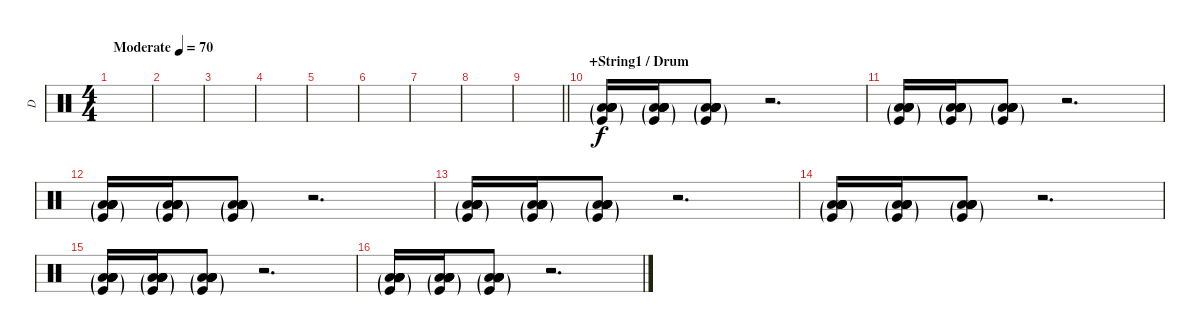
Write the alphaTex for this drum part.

\track ("D" "D") {instrument percussion}
\staff {score}
\articulation defaults
\ts (4 4)
\tempo (70 "Moderate")
\clef neutral
\ks c
|
|
|
|
|
|
|
|
\barLineRight lightlight
|
\section ("" "+String1 / Drum")
("Low Floor Tom (hit)"{g} "Low Floor Tom (hit)"{g} "Low Floor Tom (hit)"{g} "Low Floor Tom (hit)"{g} "Low Floor Tom (hit)"{g} "Kick (hit)"{g}).16 ("Low Floor Tom (hit)"{g} "Low Floor Tom (hit)"{g} "Low Floor Tom (hit)"{g} "Low Floor Tom (hit)"{g} "Low Floor Tom (hit)"{g} "Kick (hit)"{g}).16 ("Low Floor Tom (hit)"{g} "Low Floor Tom (hit)"{g} "Low Floor Tom (hit)"{g} "Low Floor Tom (hit)"{g} "Low Floor Tom (hit)"{g} "Kick (hit)"{g}).8 r.2{d} |
("Low Floor Tom (hit)"{g} "Low Floor Tom (hit)"{g} "Low Floor Tom (hit)"{g} "Low Floor Tom (hit)"{g} "Low Floor Tom (hit)"{g} "Kick (hit)"{g}).16 ("Low Floor Tom (hit)"{g} "Low Floor Tom (hit)"{g} "Low Floor Tom (hit)"{g} "Low Floor Tom (hit)"{g} "Low Floor Tom (hit)"{g} "Kick (hit)"{g}).16 ("Low Floor Tom (hit)"{g} "Low Floor Tom (hit)"{g} "Low Floor Tom (hit)"{g} "Low Floor Tom (hit)"{g} "Low Floor Tom (hit)"{g} "Kick (hit)"{g}).8 r.2{d} |
("Low Floor Tom (hit)"{g} "Low Floor Tom (hit)"{g} "Low Floor Tom (hit)"{g} "Low Floor Tom (hit)"{g} "Low Floor Tom (hit)"{g} "Kick (hit)"{g}).16 ("Low Floor Tom (hit)"{g} "Low Floor Tom (hit)"{g} "Low Floor Tom (hit)"{g} "Low Floor Tom (hit)"{g} "Low Floor Tom (hit)"{g} "Kick (hit)"{g}).16 ("Low Floor Tom (hit)"{g} "Low Floor Tom (hit)"{g} "Low Floor Tom (hit)"{g} "Low Floor Tom (hit)"{g} "Low Floor Tom (hit)"{g} "Kick (hit)"{g}).8 r.2{d} |
("Low Floor Tom (hit)"{g} "Low Floor Tom (hit)"{g} "Low Floor Tom (hit)"{g} "Low Floor Tom (hit)"{g} "Low Floor Tom (hit)"{g} "Kick (hit)"{g}).16 ("Low Floor Tom (hit)"{g} "Low Floor Tom (hit)"{g} "Low Floor Tom (hit)"{g} "Low Floor Tom (hit)"{g} "Low Floor Tom (hit)"{g} "Kick (hit)"{g}).16 ("Low Floor Tom (hit)"{g} "Low Floor Tom (hit)"{g} "Low Floor Tom (hit)"{g} "Low Floor Tom (hit)"{g} "Low Floor Tom (hit)"{g} "Kick (hit)"{g}).8 r.2{d} |
("Low Floor Tom (hit)"{g} "Low Floor Tom (hit)"{g} "Low Floor Tom (hit)"{g} "Low Floor Tom (hit)"{g} "Low Floor Tom (hit)"{g} "Kick (hit)"{g}).16 ("Low Floor Tom (hit)"{g} "Low Floor Tom (hit)"{g} "Low Floor Tom (hit)"{g} "Low Floor Tom (hit)"{g} "Low Floor Tom (hit)"{g} "Kick (hit)"{g}).16 ("Low Floor Tom (hit)"{g} "Low Floor Tom (hit)"{g} "Low Floor Tom (hit)"{g} "Low Floor Tom (hit)"{g} "Low Floor Tom (hit)"{g} "Kick (hit)"{g}).8 r.2{d} |
("Low Floor Tom (hit)"{g} "Low Floor Tom (hit)"{g} "Low Floor Tom (hit)"{g} "Low Floor Tom (hit)"{g} "Low Floor Tom (hit)"{g} "Kick (hit)"{g}).16 ("Low Floor Tom (hit)"{g} "Low Floor Tom (hit)"{g} "Low Floor Tom (hit)"{g} "Low Floor Tom (hit)"{g} "Low Floor Tom (hit)"{g} "Kick (hit)"{g}).16 ("Low Floor Tom (hit)"{g} "Low Floor Tom (hit)"{g} "Low Floor Tom (hit)"{g} "Low Floor Tom (hit)"{g} "Low Floor Tom (hit)"{g} "Kick (hit)"{g}).8 r.2{d} |
("Low Floor Tom (hit)"{g} "Low Floor Tom (hit)"{g} "Low Floor Tom (hit)"{g} "Low Floor Tom (hit)"{g} "Low Floor Tom (hit)"{g} "Kick (hit)"{g}).16 ("Low Floor Tom (hit)"{g} "Low Floor Tom (hit)"{g} "Low Floor Tom (hit)"{g} "Low Floor Tom (hit)"{g} "Low Floor Tom (hit)"{g} "Kick (hit)"{g}).16 ("Low Floor Tom (hit)"{g} "Low Floor Tom (hit)"{g} "Low Floor Tom (hit)"{g} "Low Floor Tom (hit)"{g} "Low Floor Tom (hit)"{g} "Kick (hit)"{g}).8 r.2{d}
